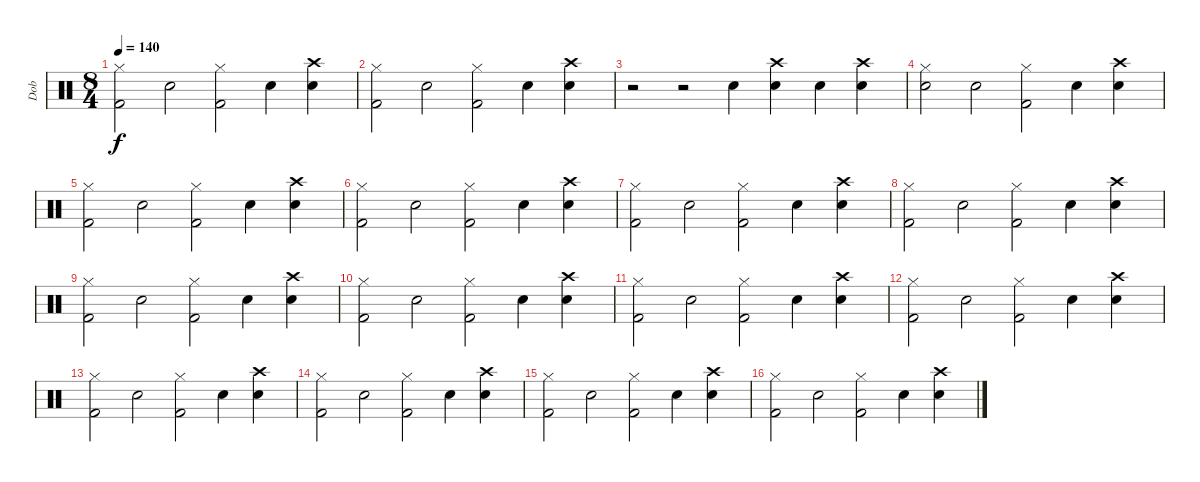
\track ("Dob" "Dob") {instrument percussion}
\staff {score}
\articulation defaults
\ts (8 4)
\tempo 140
\clef neutral
\ks c
("Kick (hit) 2" "Hi-Hat (closed)").2{dy f} "Snare (hit) 2".2 ("Kick (hit) 2" "Hi-Hat (closed)").2 "Snare (hit) 2".4 ("Snare (hit) 2" "Crash high (hit)").4 |
("Kick (hit) 2" "Hi-Hat (closed)").2 "Snare (hit) 2".2 ("Kick (hit) 2" "Hi-Hat (closed)").2 "Snare (hit) 2".4 ("Snare (hit) 2" "Crash high (hit)").4 |
r.2 r.2 "Snare (hit) 2".4 ("Snare (hit) 2" "Crash high (hit)").4 "Snare (hit) 2".4 ("Snare (hit) 2" "Crash high (hit)").4 |
("Snare (hit)" "Hi-Hat (closed)").2 "Snare (hit) 2".2 ("Kick (hit) 2" "Hi-Hat (closed)").2 "Snare (hit) 2".4 ("Snare (hit) 2" "Crash high (hit)").4 |
("Kick (hit) 2" "Hi-Hat (closed)").2 "Snare (hit) 2".2 ("Kick (hit) 2" "Hi-Hat (closed)").2 "Snare (hit) 2".4 ("Snare (hit) 2" "Crash high (hit)").4 |
("Kick (hit) 2" "Hi-Hat (closed)").2 "Snare (hit) 2".2 ("Kick (hit) 2" "Hi-Hat (closed)").2 "Snare (hit) 2".4 ("Snare (hit) 2" "Crash high (hit)").4 |
("Kick (hit) 2" "Hi-Hat (closed)").2 "Snare (hit) 2".2 ("Kick (hit) 2" "Hi-Hat (closed)").2 "Snare (hit) 2".4 ("Snare (hit) 2" "Crash high (hit)").4 |
("Kick (hit) 2" "Hi-Hat (closed)").2 "Snare (hit) 2".2 ("Kick (hit) 2" "Hi-Hat (closed)").2 "Snare (hit) 2".4 ("Snare (hit) 2" "Crash high (hit)").4 |
("Kick (hit) 2" "Hi-Hat (closed)").2 "Snare (hit) 2".2 ("Kick (hit) 2" "Hi-Hat (closed)").2 "Snare (hit) 2".4 ("Snare (hit) 2" "Crash high (hit)").4 |
("Kick (hit) 2" "Hi-Hat (closed)").2 "Snare (hit) 2".2 ("Kick (hit) 2" "Hi-Hat (closed)").2 "Snare (hit) 2".4 ("Snare (hit) 2" "Crash high (hit)").4 |
("Kick (hit) 2" "Hi-Hat (closed)").2 "Snare (hit) 2".2 ("Kick (hit) 2" "Hi-Hat (closed)").2 "Snare (hit) 2".4 ("Snare (hit) 2" "Crash high (hit)").4 |
("Kick (hit) 2" "Hi-Hat (closed)").2 "Snare (hit) 2".2 ("Kick (hit) 2" "Hi-Hat (closed)").2 "Snare (hit) 2".4 ("Snare (hit) 2" "Crash high (hit)").4 |
("Kick (hit) 2" "Hi-Hat (closed)").2 "Snare (hit) 2".2 ("Kick (hit) 2" "Hi-Hat (closed)").2 "Snare (hit) 2".4 ("Snare (hit) 2" "Crash high (hit)").4 |
("Kick (hit) 2" "Hi-Hat (closed)").2 "Snare (hit) 2".2 ("Kick (hit) 2" "Hi-Hat (closed)").2 "Snare (hit) 2".4 ("Snare (hit) 2" "Crash high (hit)").4 |
("Kick (hit) 2" "Hi-Hat (closed)").2 "Snare (hit) 2".2 ("Kick (hit) 2" "Hi-Hat (closed)").2 "Snare (hit) 2".4 ("Snare (hit) 2" "Crash high (hit)").4 |
("Kick (hit) 2" "Hi-Hat (closed)").2 "Snare (hit) 2".2 ("Kick (hit) 2" "Hi-Hat (closed)").2 "Snare (hit) 2".4 ("Snare (hit) 2" "Crash high (hit)").4
